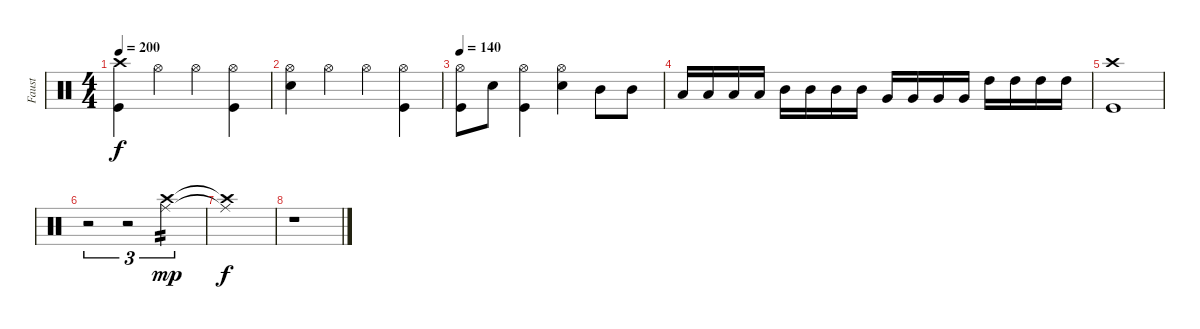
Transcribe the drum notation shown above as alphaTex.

\track ("Faust" "Faust") {instrument percussion}
\staff {score}
\articulation defaults
\ts (4 4)
\tempo 200
\clef neutral
\ks c
("Kick (hit)" "Crash high (hit)").4{dy f} "Hi-Hat (open)".4 "Hi-Hat (open)".4 ("Kick (hit)" "Hi-Hat (open)").4 |
("Snare (hit) 2" "Hi-Hat (open)").4 "Hi-Hat (open)".4 "Hi-Hat (open)".4 ("Kick (hit)" "Hi-Hat (open)").4 |
\tempo 140
("Kick (hit)" "Hi-Hat (open)").8 "Snare (hit) 2".8 ("Kick (hit)" "Hi-Hat (open)").4 ("Snare (hit) 2" "Hi-Hat (open)").4 "Mid Tom (hit)".8 "Mid Tom (hit)".8 |
"Low Tom (hit)".16 "Low Tom (hit)".16 "Low Tom (hit)".16 "Low Tom (hit)".16 "Mid Tom (hit)".16 "Mid Tom (hit)".16 "Mid Tom (hit)".16 "Mid Tom (hit)".16 "Very Low Tom (hit)".16 "Very Low Tom (hit)".16 "Very Low Tom (hit)".16 "Very Low Tom (hit)".16 "High Tom (hit)".16 "High Tom (hit)".16 "High Tom (hit)".16 "High Tom (hit)".16 |
("Kick (hit)" "Crash high (hit)").1 |
r.2{tu (3 2)} r.2{tu (3 2)} ("Ride (middle)" "Crash high (hit)").2{tu (3 2) tp 2 dy mp} |
("Ride (middle)"{t} "Crash high (hit)"{t}).1{dy f} |
r.1
